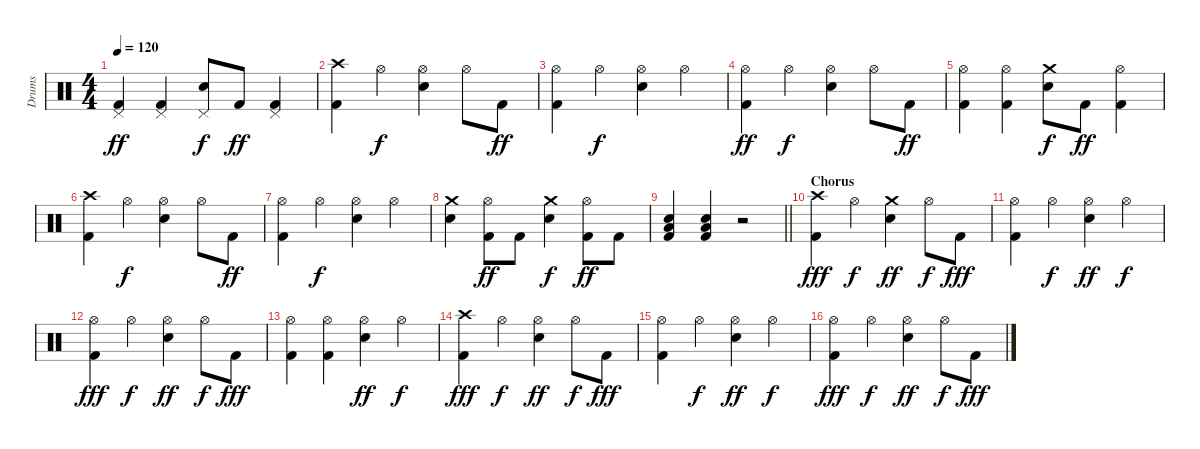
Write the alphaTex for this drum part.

\track ("Drums" "Drums") {instrument percussion}
\staff {score}
\articulation defaults
\ts (4 4)
\tempo 120
\clef neutral
\ks c
("Pedal Hi-Hat (hit)" "Kick (hit) 2").4{dy ff} ("Pedal Hi-Hat (hit)" "Kick (hit) 2").4 ("Pedal Hi-Hat (hit)" "Snare (hit) 2").8{dy f} "Kick (hit) 2".8{dy ff} ("Pedal Hi-Hat (hit)" "Kick (hit) 2").4 |
("Crash high (hit)" "Kick (hit) 2").4 "Hi-Hat (open)".4{dy f} ("Hi-Hat (open)" "Snare (hit) 2").4 "Hi-Hat (open)".8 "Kick (hit) 2".8{dy ff} |
("Hi-Hat (open)" "Kick (hit) 2").4 "Hi-Hat (open)".4{dy f} ("Hi-Hat (open)" "Snare (hit) 2").4 "Hi-Hat (open)".4 |
("Hi-Hat (open)" "Kick (hit) 2").4{dy ff} "Hi-Hat (open)".4{dy f} ("Hi-Hat (open)" "Snare (hit) 2").4 "Hi-Hat (open)".8 "Kick (hit) 2".8{dy ff} |
("Hi-Hat (open)" "Kick (hit) 2").4 ("Hi-Hat (open)" "Kick (hit) 2").4 ("Crash medium (hit)" "Snare (hit) 2").8{dy f} "Kick (hit) 2".8{dy ff} ("Hi-Hat (open)" "Kick (hit) 2").4 |
("Crash high (hit)" "Kick (hit) 2").4 "Hi-Hat (open)".4{dy f} ("Hi-Hat (open)" "Snare (hit) 2").4 "Hi-Hat (open)".8 "Kick (hit) 2".8{dy ff} |
("Hi-Hat (open)" "Kick (hit) 2").4 "Hi-Hat (open)".4{dy f} ("Hi-Hat (open)" "Snare (hit) 2").4 "Hi-Hat (open)".4 |
("Crash medium (hit)" "Snare (hit) 2").4 ("Hi-Hat (open)" "Kick (hit) 2").8{dy ff} "Kick (hit) 2".8 ("Crash medium (hit)" "Snare (hit) 2").4{dy f} ("Hi-Hat (open)" "Kick (hit) 2").8{dy ff} "Kick (hit) 2".8 |
\barLineRight lightlight
("Low Floor Tom (hit)" "Snare (hit) 2" "Kick (hit) 2").4 ("Low Floor Tom (hit)" "Snare (hit) 2" "Kick (hit) 2").4 r.2 |
\section ("" "Chorus")
("Crash high (hit)" "Kick (hit) 2").4{dy fff} "Hi-Hat (open)".4{dy f} ("Crash medium (hit)" "Snare (hit) 2").4{dy ff} "Hi-Hat (open)".8{dy f} "Kick (hit) 2".8{dy fff} |
("Hi-Hat (open)" "Kick (hit) 2").4 "Hi-Hat (open)".4{dy f} ("Hi-Hat (open)" "Snare (hit) 2").4{dy ff} "Hi-Hat (open)".4{dy f} |
("Hi-Hat (open)" "Kick (hit) 2").4{dy fff} "Hi-Hat (open)".4{dy f} ("Hi-Hat (open)" "Snare (hit) 2").4{dy ff} "Hi-Hat (open)".8{dy f} "Kick (hit) 2".8{dy fff} |
("Hi-Hat (open)" "Kick (hit) 2").4 ("Hi-Hat (open)" "Kick (hit) 2").4 ("Hi-Hat (open)" "Snare (hit) 2").4{dy ff} "Hi-Hat (open)".4{dy f} |
("Crash high (hit)" "Kick (hit) 2").4{dy fff} "Hi-Hat (open)".4{dy f} ("Hi-Hat (open)" "Snare (hit) 2").4{dy ff} "Hi-Hat (open)".8{dy f} "Kick (hit) 2".8{dy fff} |
("Hi-Hat (open)" "Kick (hit) 2").4 "Hi-Hat (open)".4{dy f} ("Hi-Hat (open)" "Snare (hit) 2").4{dy ff} "Hi-Hat (open)".4{dy f} |
("Hi-Hat (open)" "Kick (hit) 2").4{dy fff} "Hi-Hat (open)".4{dy f} ("Hi-Hat (open)" "Snare (hit) 2").4{dy ff} "Hi-Hat (open)".8{dy f} "Kick (hit) 2".8{dy fff}
